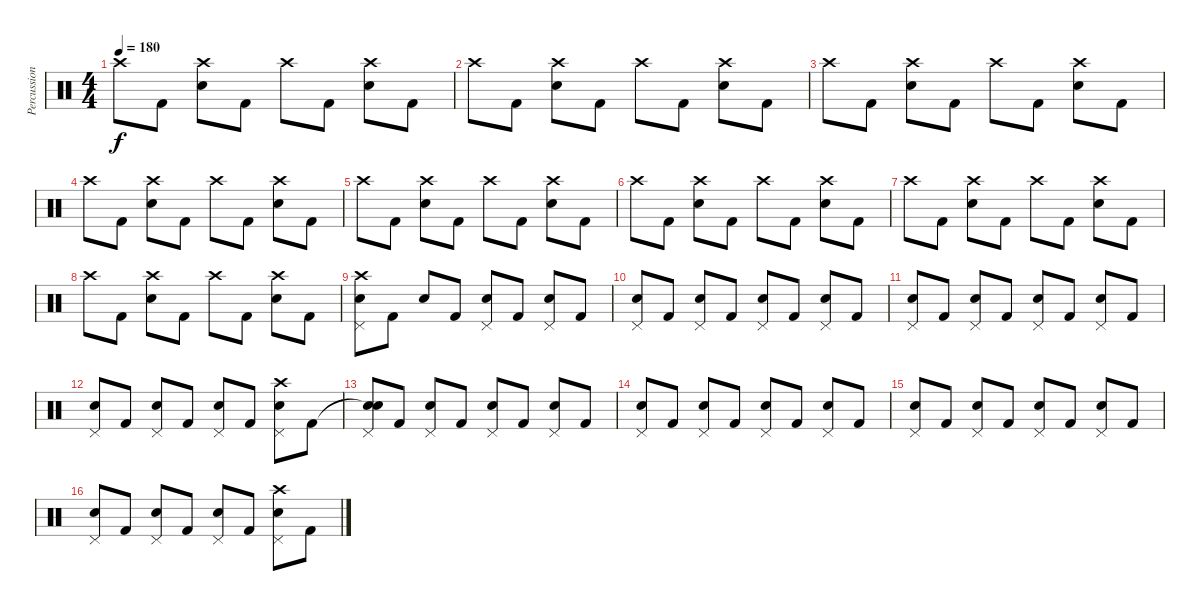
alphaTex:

\track ("Percussion" "Percussion") {instrument percussion}
\staff {score}
\articulation defaults
\ts (4 4)
\tempo 180
\clef neutral
\ks c "Crash high (hit)".8{dy f} "Kick (hit) 2".8
("Crash high (hit)" "Electric Snare (hit)").8 "Kick (hit) 2".8 "Crash high (hit)".8 "Kick (hit) 2".8 ("Crash high (hit)" "Electric Snare (hit)").8 "Kick (hit) 2".8 |
"Crash high (hit)".8 "Kick (hit) 2".8 ("Crash high (hit)" "Electric Snare (hit)").8 "Kick (hit) 2".8 "Crash high (hit)".8 "Kick (hit) 2".8 ("Crash high (hit)" "Electric Snare (hit)").8 "Kick (hit) 2".8 |
"Crash high (hit)".8 "Kick (hit) 2".8 ("Crash high (hit)" "Electric Snare (hit)").8 "Kick (hit) 2".8 "Crash high (hit)".8 "Kick (hit) 2".8 ("Crash high (hit)" "Electric Snare (hit)").8 "Kick (hit) 2".8 |
"Crash high (hit)".8 "Kick (hit) 2".8 ("Crash high (hit)" "Electric Snare (hit)").8 "Kick (hit) 2".8 "Crash high (hit)".8 "Kick (hit) 2".8 ("Crash high (hit)" "Electric Snare (hit)").8 "Kick (hit) 2".8 |
"Crash high (hit)".8 "Kick (hit) 2".8 ("Crash high (hit)" "Electric Snare (hit)").8 "Kick (hit) 2".8 "Crash high (hit)".8 "Kick (hit) 2".8 ("Crash high (hit)" "Electric Snare (hit)").8 "Kick (hit) 2".8 |
"Crash high (hit)".8 "Kick (hit) 2".8 ("Crash high (hit)" "Electric Snare (hit)").8 "Kick (hit) 2".8 "Crash high (hit)".8 "Kick (hit) 2".8 ("Crash high (hit)" "Electric Snare (hit)").8 "Kick (hit) 2".8 |
"Crash high (hit)".8 "Kick (hit) 2".8 ("Crash high (hit)" "Electric Snare (hit)").8 "Kick (hit) 2".8 "Crash high (hit)".8 "Kick (hit) 2".8 ("Crash high (hit)" "Electric Snare (hit)").8 "Kick (hit) 2".8 |
"Crash high (hit)".8 "Kick (hit) 2".8 ("Crash high (hit)" "Electric Snare (hit)").8 "Kick (hit) 2".8 "Crash high (hit)".8 "Kick (hit) 2".8 ("Crash high (hit)" "Electric Snare (hit)").8 "Kick (hit) 2".8 |
("Crash high (hit)" "Pedal Hi-Hat (hit)" "Electric Snare (hit)").8 "Kick (hit) 2".8 "Electric Snare (hit)".8 "Kick (hit) 2".8 ("Pedal Hi-Hat (hit)" "Electric Snare (hit)").8 "Kick (hit) 2".8 ("Pedal Hi-Hat (hit)" "Electric Snare (hit)").8 "Kick (hit) 2".8 |
("Pedal Hi-Hat (hit)" "Electric Snare (hit)").8 "Kick (hit) 2".8 ("Pedal Hi-Hat (hit)" "Electric Snare (hit)").8 "Kick (hit) 2".8 ("Pedal Hi-Hat (hit)" "Electric Snare (hit)").8 "Kick (hit) 2".8 ("Pedal Hi-Hat (hit)" "Electric Snare (hit)").8 "Kick (hit) 2".8 |
("Pedal Hi-Hat (hit)" "Electric Snare (hit)").8 "Kick (hit) 2".8 ("Pedal Hi-Hat (hit)" "Electric Snare (hit)").8 "Kick (hit) 2".8 ("Pedal Hi-Hat (hit)" "Electric Snare (hit)").8 "Kick (hit) 2".8 ("Pedal Hi-Hat (hit)" "Electric Snare (hit)").8 "Kick (hit) 2".8 |
("Pedal Hi-Hat (hit)" "Electric Snare (hit)").8 "Kick (hit) 2".8 ("Pedal Hi-Hat (hit)" "Electric Snare (hit)").8 "Kick (hit) 2".8 ("Pedal Hi-Hat (hit)" "Electric Snare (hit)").8 "Kick (hit) 2".8 ("Crash high (hit)" "Pedal Hi-Hat (hit)" "Electric Snare (hit)").8 "Kick (hit) 2".8 |
("Snare (hit)"{t} "Pedal Hi-Hat (hit)" "Electric Snare (hit)").8 "Kick (hit) 2".8 ("Pedal Hi-Hat (hit)" "Electric Snare (hit)").8 "Kick (hit) 2".8 ("Pedal Hi-Hat (hit)" "Electric Snare (hit)").8 "Kick (hit) 2".8 ("Pedal Hi-Hat (hit)" "Electric Snare (hit)").8 "Kick (hit) 2".8 |
("Pedal Hi-Hat (hit)" "Electric Snare (hit)").8 "Kick (hit) 2".8 ("Pedal Hi-Hat (hit)" "Electric Snare (hit)").8 "Kick (hit) 2".8 ("Pedal Hi-Hat (hit)" "Electric Snare (hit)").8 "Kick (hit) 2".8 ("Pedal Hi-Hat (hit)" "Electric Snare (hit)").8 "Kick (hit) 2".8 |
("Pedal Hi-Hat (hit)" "Electric Snare (hit)").8 "Kick (hit) 2".8 ("Pedal Hi-Hat (hit)" "Electric Snare (hit)").8 "Kick (hit) 2".8 ("Pedal Hi-Hat (hit)" "Electric Snare (hit)").8 "Kick (hit) 2".8 ("Pedal Hi-Hat (hit)" "Electric Snare (hit)").8 "Kick (hit) 2".8 |
("Pedal Hi-Hat (hit)" "Electric Snare (hit)").8 "Kick (hit) 2".8 ("Pedal Hi-Hat (hit)" "Electric Snare (hit)").8 "Kick (hit) 2".8 ("Pedal Hi-Hat (hit)" "Electric Snare (hit)").8 "Kick (hit) 2".8 ("Crash high (hit)" "Pedal Hi-Hat (hit)" "Electric Snare (hit)").8 "Kick (hit) 2".8
